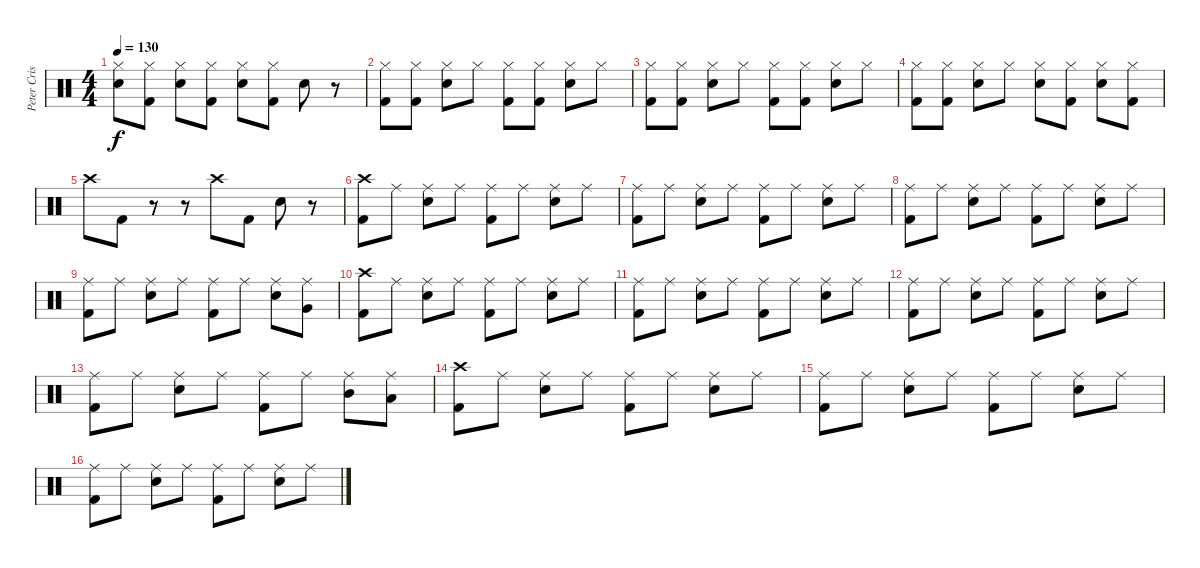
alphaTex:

\track ("Peter Criss" "Peter Cris") {instrument percussion}
\staff {score}
\articulation defaults
\ts (4 4)
\tempo 130
\clef neutral
\ks c
("Hi-Hat (closed)" "Electric Snare (hit)").8{dy f} ("Hi-Hat (closed)" "Kick (hit) 2").8 ("Hi-Hat (closed)" "Electric Snare (hit)").8 ("Hi-Hat (closed)" "Kick (hit) 2").8 ("Hi-Hat (closed)" "Electric Snare (hit)").8 ("Hi-Hat (closed)" "Kick (hit) 2").8 "Electric Snare (hit)".8 r.8 |
("Hi-Hat (closed)" "Kick (hit) 2").8 ("Hi-Hat (closed)" "Kick (hit) 2").8 ("Hi-Hat (closed)" "Electric Snare (hit)").8 "Hi-Hat (closed)".8 ("Hi-Hat (closed)" "Kick (hit) 2").8 ("Hi-Hat (closed)" "Kick (hit) 2").8 ("Hi-Hat (closed)" "Electric Snare (hit)").8 "Hi-Hat (closed)".8 |
("Hi-Hat (closed)" "Kick (hit) 2").8 ("Hi-Hat (closed)" "Kick (hit) 2").8 ("Hi-Hat (closed)" "Electric Snare (hit)").8 "Hi-Hat (closed)".8 ("Hi-Hat (closed)" "Kick (hit) 2").8 ("Hi-Hat (closed)" "Kick (hit) 2").8 ("Hi-Hat (closed)" "Electric Snare (hit)").8 "Hi-Hat (closed)".8 |
("Hi-Hat (closed)" "Kick (hit) 2").8 ("Hi-Hat (closed)" "Kick (hit) 2").8 ("Hi-Hat (closed)" "Electric Snare (hit)").8 "Hi-Hat (closed)".8 ("Hi-Hat (closed)" "Electric Snare (hit)").8 ("Hi-Hat (closed)" "Kick (hit) 2").8 ("Hi-Hat (closed)" "Electric Snare (hit)").8 ("Hi-Hat (closed)" "Kick (hit) 2").8 |
"Crash high (hit)".8 "Kick (hit) 2".8 r.8 r.8 "Crash high (hit)".8 "Kick (hit) 2".8 "Electric Snare (hit)".8 r.8 |
("Crash high (hit)" "Kick (hit) 2").8 "Ride (middle)".8 ("Ride (middle)" "Electric Snare (hit)").8 "Ride (middle)".8 ("Ride (middle)" "Kick (hit) 2").8 "Ride (middle)".8 ("Ride (middle)" "Electric Snare (hit)").8 "Ride (middle)".8 |
("Ride (middle)" "Kick (hit) 2").8 "Ride (middle)".8 ("Ride (middle)" "Electric Snare (hit)").8 "Ride (middle)".8 ("Ride (middle)" "Kick (hit) 2").8 "Ride (middle)".8 ("Ride (middle)" "Electric Snare (hit)").8 "Ride (middle)".8 |
("Ride (middle)" "Kick (hit) 2").8 "Ride (middle)".8 ("Ride (middle)" "Electric Snare (hit)").8 "Ride (middle)".8 ("Ride (middle)" "Kick (hit) 2").8 "Ride (middle)".8 ("Ride (middle)" "Electric Snare (hit)").8 "Ride (middle)".8 |
("Ride (middle)" "Kick (hit) 2").8 "Ride (middle)".8 ("Ride (middle)" "Electric Snare (hit)").8 "Ride (middle)".8 ("Ride (middle)" "Kick (hit) 2").8 "Ride (middle)".8 ("Ride (middle)" "Electric Snare (hit)").8 ("Ride (middle)" "Very Low Tom (hit)").8 |
("Crash high (hit)" "Kick (hit) 2").8 "Ride (middle)".8 ("Ride (middle)" "Electric Snare (hit)").8 "Ride (middle)".8 ("Ride (middle)" "Kick (hit) 2").8 "Ride (middle)".8 ("Ride (middle)" "Electric Snare (hit)").8 "Ride (middle)".8 |
("Ride (middle)" "Kick (hit) 2").8 "Ride (middle)".8 ("Ride (middle)" "Electric Snare (hit)").8 "Ride (middle)".8 ("Ride (middle)" "Kick (hit) 2").8 "Ride (middle)".8 ("Ride (middle)" "Electric Snare (hit)").8 "Ride (middle)".8 |
("Ride (middle)" "Kick (hit) 2").8 "Ride (middle)".8 ("Ride (middle)" "Electric Snare (hit)").8 "Ride (middle)".8 ("Ride (middle)" "Kick (hit) 2").8 "Ride (middle)".8 ("Ride (middle)" "Electric Snare (hit)").8 "Ride (middle)".8 |
("Ride (middle)" "Kick (hit) 2").8 "Ride (middle)".8 ("Ride (middle)" "Electric Snare (hit)").8 "Ride (middle)".8 ("Ride (middle)" "Kick (hit) 2").8 "Ride (middle)".8 ("Ride (middle)" "Mid Tom (hit)").8 ("Ride (middle)" "Low Tom (hit)").8 |
("Crash high (hit)" "Kick (hit) 2").8 "Ride (middle)".8 ("Ride (middle)" "Electric Snare (hit)").8 "Ride (middle)".8 ("Ride (middle)" "Kick (hit) 2").8 "Ride (middle)".8 ("Ride (middle)" "Electric Snare (hit)").8 "Ride (middle)".8 |
("Ride (middle)" "Kick (hit) 2").8 "Ride (middle)".8 ("Ride (middle)" "Electric Snare (hit)").8 "Ride (middle)".8 ("Ride (middle)" "Kick (hit) 2").8 "Ride (middle)".8 ("Ride (middle)" "Electric Snare (hit)").8 "Ride (middle)".8 |
("Ride (middle)" "Kick (hit) 2").8 "Ride (middle)".8 ("Ride (middle)" "Electric Snare (hit)").8 "Ride (middle)".8 ("Ride (middle)" "Kick (hit) 2").8 "Ride (middle)".8 ("Ride (middle)" "Electric Snare (hit)").8 "Ride (middle)".8
